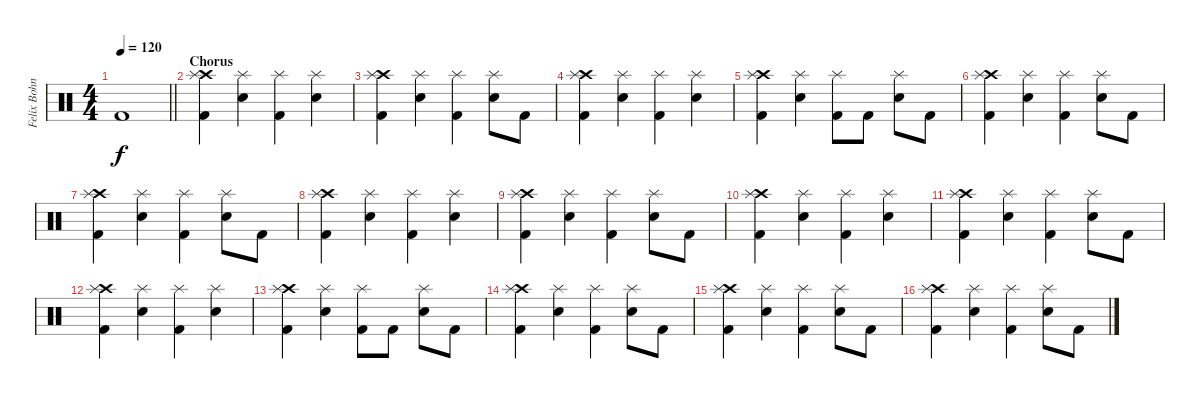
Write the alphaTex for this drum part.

\track ("Felix Bohnke (Drums)" "Felix Bohn") {instrument percussion}
\staff {score}
\articulation defaults
\ts (4 4)
\tempo 120
\clef neutral
\barLineRight lightlight
\ks c "Kick (hit) 2".1{dy f}
|
\section ("" "Chorus")
("Crash high (hit)" "Splash (hit)" "Kick (hit) 2").4 ("Splash (hit)" "Snare (hit) 2").4 ("Splash (hit)" "Kick (hit) 2").4 ("Splash (hit)" "Snare (hit) 2").4 |
("Crash high (hit)" "Splash (hit)" "Kick (hit) 2").4 ("Splash (hit)" "Snare (hit) 2").4 ("Splash (hit)" "Kick (hit) 2").4 ("Splash (hit)" "Snare (hit) 2").8 "Kick (hit) 2".8 |
("Crash high (hit)" "Splash (hit)" "Kick (hit) 2").4 ("Splash (hit)" "Snare (hit) 2").4 ("Splash (hit)" "Kick (hit) 2").4 ("Splash (hit)" "Snare (hit) 2").4 |
("Crash high (hit)" "Splash (hit)" "Kick (hit) 2").4 ("Splash (hit)" "Snare (hit) 2").4 ("Splash (hit)" "Kick (hit) 2").8 "Kick (hit) 2".8 ("Splash (hit)" "Snare (hit) 2").8 "Kick (hit) 2".8 |
("Crash high (hit)" "Splash (hit)" "Kick (hit) 2").4 ("Splash (hit)" "Snare (hit) 2").4 ("Splash (hit)" "Kick (hit) 2").4 ("Splash (hit)" "Snare (hit) 2").8 "Kick (hit) 2".8 |
("Crash high (hit)" "Splash (hit)" "Kick (hit) 2").4 ("Splash (hit)" "Snare (hit) 2").4 ("Splash (hit)" "Kick (hit) 2").4 ("Splash (hit)" "Snare (hit) 2").8 "Kick (hit) 2".8 |
("Crash high (hit)" "Splash (hit)" "Kick (hit) 2").4 ("Splash (hit)" "Snare (hit) 2").4 ("Splash (hit)" "Kick (hit) 2").4 ("Splash (hit)" "Snare (hit) 2").4 |
("Crash high (hit)" "Splash (hit)" "Kick (hit) 2").4 ("Splash (hit)" "Snare (hit) 2").4 ("Splash (hit)" "Kick (hit) 2").4 ("Splash (hit)" "Snare (hit) 2").8 "Kick (hit) 2".8 |
("Crash high (hit)" "Splash (hit)" "Kick (hit) 2").4 ("Splash (hit)" "Snare (hit) 2").4 ("Splash (hit)" "Kick (hit) 2").4 ("Splash (hit)" "Snare (hit) 2").4 |
("Crash high (hit)" "Splash (hit)" "Kick (hit) 2").4 ("Splash (hit)" "Snare (hit) 2").4 ("Splash (hit)" "Kick (hit) 2").4 ("Splash (hit)" "Snare (hit) 2").8 "Kick (hit) 2".8 |
("Crash high (hit)" "Splash (hit)" "Kick (hit) 2").4 ("Splash (hit)" "Snare (hit) 2").4 ("Splash (hit)" "Kick (hit) 2").4 ("Splash (hit)" "Snare (hit) 2").4 |
("Crash high (hit)" "Splash (hit)" "Kick (hit) 2").4 ("Splash (hit)" "Snare (hit) 2").4 ("Splash (hit)" "Kick (hit) 2").8 "Kick (hit) 2".8 ("Splash (hit)" "Snare (hit) 2").8 "Kick (hit) 2".8 |
("Crash high (hit)" "Splash (hit)" "Kick (hit) 2").4 ("Splash (hit)" "Snare (hit) 2").4 ("Splash (hit)" "Kick (hit) 2").4 ("Splash (hit)" "Snare (hit) 2").8 "Kick (hit) 2".8 |
("Crash high (hit)" "Splash (hit)" "Kick (hit) 2").4 ("Splash (hit)" "Snare (hit) 2").4 ("Splash (hit)" "Kick (hit) 2").4 ("Splash (hit)" "Snare (hit) 2").8 "Kick (hit) 2".8 |
("Crash high (hit)" "Splash (hit)" "Kick (hit) 2").4 ("Splash (hit)" "Snare (hit) 2").4 ("Splash (hit)" "Kick (hit) 2").4 ("Splash (hit)" "Snare (hit) 2").8 "Kick (hit) 2".8
